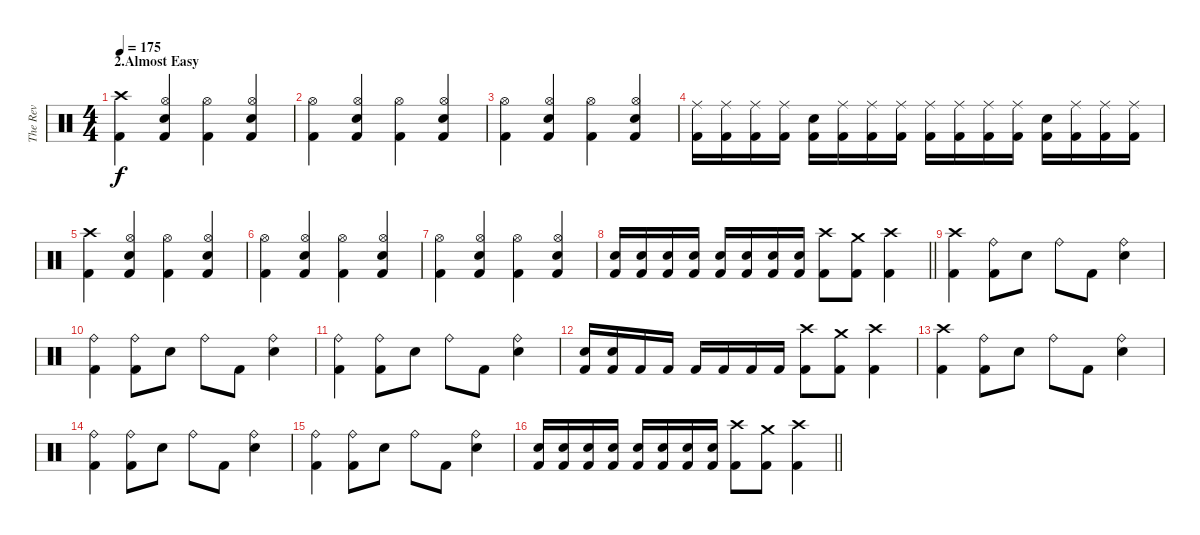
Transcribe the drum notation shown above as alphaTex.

\track ("The Rev" "The Rev") {instrument percussion}
\staff {score}
\articulation defaults
\ts (4 4)
\section ("" "2.Almost Easy")
\tempo 175
\clef neutral
\ks c
("Crash high (hit)" "Kick (hit) 2").4{dy f} ("Hi-Hat (open)" "Snare (hit) 2" "Kick (hit) 2").4 ("Hi-Hat (open)" "Kick (hit) 2").4 ("Hi-Hat (open)" "Snare (hit) 2" "Kick (hit) 2").4 |
("Hi-Hat (open)" "Kick (hit) 2").4 ("Hi-Hat (open)" "Snare (hit) 2" "Kick (hit) 2").4 ("Hi-Hat (open)" "Kick (hit) 2").4 ("Hi-Hat (open)" "Snare (hit) 2" "Kick (hit) 2").4 |
("Hi-Hat (open)" "Kick (hit) 2").4 ("Hi-Hat (open)" "Snare (hit) 2" "Kick (hit) 2").4 ("Hi-Hat (open)" "Kick (hit) 2").4 ("Hi-Hat (open)" "Snare (hit) 2" "Kick (hit) 2").4 |
("Ride (middle)" "Kick (hit) 2").16 ("Ride (middle)" "Kick (hit) 2").16 ("Ride (middle)" "Kick (hit) 2").16 ("Ride (middle)" "Kick (hit) 2").16 ("Snare (hit) 2" "Kick (hit) 2").16 ("Ride (middle)" "Kick (hit) 2").16 ("Ride (middle)" "Kick (hit) 2").16 ("Ride (middle)" "Kick (hit) 2").16 ("Ride (middle)" "Kick (hit) 2").16 ("Ride (middle)" "Kick (hit) 2").16 ("Ride (middle)" "Kick (hit) 2").16 ("Ride (middle)" "Kick (hit) 2").16 ("Snare (hit) 2" "Kick (hit) 2").16 ("Ride (middle)" "Kick (hit) 2").16 ("Ride (middle)" "Kick (hit) 2").16 ("Ride (middle)" "Kick (hit) 2").16 |
("Crash high (hit)" "Kick (hit) 2").4 ("Hi-Hat (open)" "Snare (hit) 2" "Kick (hit) 2").4 ("Hi-Hat (open)" "Kick (hit) 2").4 ("Hi-Hat (open)" "Snare (hit) 2" "Kick (hit) 2").4 |
("Hi-Hat (open)" "Kick (hit) 2").4 ("Hi-Hat (open)" "Snare (hit) 2" "Kick (hit) 2").4 ("Hi-Hat (open)" "Kick (hit) 2").4 ("Hi-Hat (open)" "Snare (hit) 2" "Kick (hit) 2").4 |
("Hi-Hat (open)" "Kick (hit) 2").4 ("Hi-Hat (open)" "Snare (hit) 2" "Kick (hit) 2").4 ("Hi-Hat (open)" "Kick (hit) 2").4 ("Hi-Hat (open)" "Snare (hit) 2" "Kick (hit) 2").4 |
\barLineRight lightlight
("Snare (hit) 2" "Kick (hit) 2").16 ("Snare (hit) 2" "Kick (hit) 2").16 ("Snare (hit) 2" "Kick (hit) 2").16 ("Snare (hit) 2" "Kick (hit) 2").16 ("Snare (hit) 2" "Kick (hit) 2").16 ("Snare (hit) 2" "Kick (hit) 2").16 ("Snare (hit) 2" "Kick (hit) 2").16 ("Snare (hit) 2" "Kick (hit) 2").16 ("Crash high (hit)" "Kick (hit) 2").8 ("Crash medium (hit)" "Kick (hit) 2").8 ("Crash high (hit)" "Kick (hit) 2").4 |
("Crash high (hit)" "Kick (hit) 2").4 ("Ride (bell)" "Kick (hit) 2").8 "Snare (hit) 2".8 "Ride (bell)".8 "Kick (hit) 2".8 ("Ride (bell)" "Snare (hit) 2").4 |
("Ride (bell)" "Kick (hit) 2").4 ("Ride (bell)" "Kick (hit) 2").8 "Snare (hit) 2".8 "Ride (bell)".8 "Kick (hit) 2".8 ("Ride (bell)" "Snare (hit) 2").4 |
("Ride (bell)" "Kick (hit) 2").4 ("Ride (bell)" "Kick (hit) 2").8 "Snare (hit) 2".8 "Ride (bell)".8 "Kick (hit) 2".8 ("Ride (bell)" "Snare (hit) 2").4 |
("Snare (hit) 2" "Kick (hit) 2").16 ("Snare (hit) 2" "Kick (hit) 2").16 "Kick (hit) 2".16 "Kick (hit) 2".16 "Kick (hit) 2".16 "Kick (hit) 2".16 "Kick (hit) 2".16 "Kick (hit) 2".16 ("Crash high (hit)" "Kick (hit) 2").8 ("Crash medium (hit)" "Kick (hit) 2").8 ("Crash high (hit)" "Kick (hit) 2").4 |
("Crash high (hit)" "Kick (hit) 2").4 ("Ride (bell)" "Kick (hit) 2").8 "Snare (hit) 2".8 "Ride (bell)".8 "Kick (hit) 2".8 ("Ride (bell)" "Snare (hit) 2").4 |
("Ride (bell)" "Kick (hit) 2").4 ("Ride (bell)" "Kick (hit) 2").8 "Snare (hit) 2".8 "Ride (bell)".8 "Kick (hit) 2".8 ("Ride (bell)" "Snare (hit) 2").4 |
("Ride (bell)" "Kick (hit) 2").4 ("Ride (bell)" "Kick (hit) 2").8 "Snare (hit) 2".8 "Ride (bell)".8 "Kick (hit) 2".8 ("Ride (bell)" "Snare (hit) 2").4 |
\barLineRight lightlight
("Snare (hit) 2" "Kick (hit) 2").16 ("Snare (hit) 2" "Kick (hit) 2").16 ("Snare (hit) 2" "Kick (hit) 2").16 ("Snare (hit) 2" "Kick (hit) 2").16 ("Snare (hit) 2" "Kick (hit) 2").16 ("Snare (hit) 2" "Kick (hit) 2").16 ("Snare (hit) 2" "Kick (hit) 2").16 ("Snare (hit) 2" "Kick (hit) 2").16 ("Crash high (hit)" "Kick (hit) 2").8 ("Crash medium (hit)" "Kick (hit) 2").8 ("Crash high (hit)" "Kick (hit) 2").4
